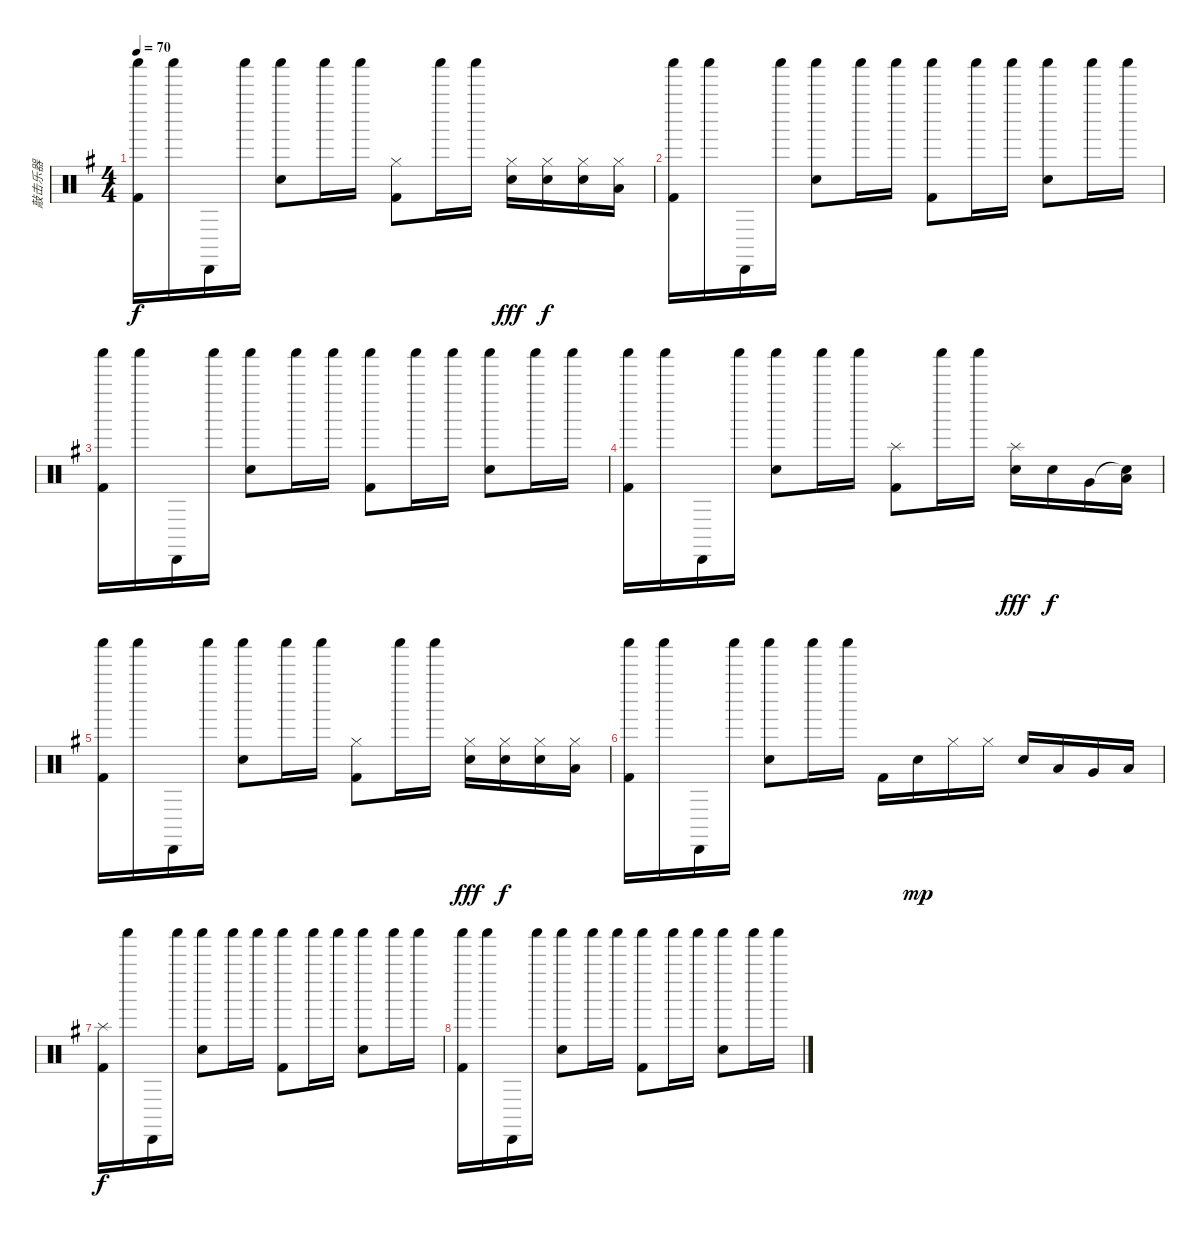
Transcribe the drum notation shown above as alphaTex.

\track ("敲击乐器" "敲击乐器") {instrument percussion}
\staff {score}
\articulation defaults
\ts (4 4)
\tempo 70
\clef neutral
\ks g
("Shaker (hit)" "Kick (hit) 2").16{dy f} "Shaker (hit)".16 "Cabasa (hit)".16 "Shaker (hit)".16 ("Shaker (hit)" "Snare (hit) 2").8 "Shaker (hit)".16 "Shaker (hit)".16 ("Hi-Hat (closed)" "Kick (hit) 2").8 "Shaker (hit)".16 "Shaker (hit)".16 ("Hi-Hat (closed)" "Snare (hit) 2").16{dy fff} ("Hi-Hat (closed)" "Electric Snare (hit)").16{dy f} ("Hi-Hat (closed)" "Electric Snare (hit)").16 ("Hi-Hat (closed)" "Low Tom (hit)").16 |
("Shaker (hit)" "Kick (hit) 2").16 "Shaker (hit)".16 "Cabasa (hit)".16 "Shaker (hit)".16 ("Shaker (hit)" "Snare (hit) 2").8 "Shaker (hit)".16 "Shaker (hit)".16 ("Shaker (hit)" "Kick (hit) 2").8 "Shaker (hit)".16 "Shaker (hit)".16 ("Shaker (hit)" "Snare (hit) 2").8 "Shaker (hit)".16 "Shaker (hit)".16 |
("Shaker (hit)" "Kick (hit) 2").16 "Shaker (hit)".16 "Cabasa (hit)".16 "Shaker (hit)".16 ("Shaker (hit)" "Snare (hit) 2").8 "Shaker (hit)".16 "Shaker (hit)".16 ("Shaker (hit)" "Kick (hit) 2").8 "Shaker (hit)".16 "Shaker (hit)".16 ("Shaker (hit)" "Snare (hit) 2").8 "Shaker (hit)".16 "Shaker (hit)".16 |
("Shaker (hit)" "Kick (hit) 2").16 "Shaker (hit)".16 "Cabasa (hit)".16 "Shaker (hit)".16 ("Shaker (hit)" "Snare (hit) 2").8 "Shaker (hit)".16 "Shaker (hit)".16 ("Splash (hit)" "Kick (hit) 2").8 "Shaker (hit)".16 "Shaker (hit)".16 ("Splash (hit)" "Snare (hit) 2").16{dy fff} "Electric Snare (hit)".16{dy f} "Very Low Tom (hit)".16 ("Snare (hit)"{t} "Low Tom (hit)").16 |
("Shaker (hit)" "Kick (hit) 2").16 "Shaker (hit)".16 "Cabasa (hit)".16 "Shaker (hit)".16 ("Shaker (hit)" "Snare (hit) 2").8 "Shaker (hit)".16 "Shaker (hit)".16 ("Hi-Hat (closed)" "Kick (hit) 2").8 "Shaker (hit)".16 "Shaker (hit)".16 ("Hi-Hat (closed)" "Snare (hit) 2").16{dy fff} ("Hi-Hat (closed)" "Electric Snare (hit)").16{dy f} ("Hi-Hat (closed)" "Electric Snare (hit)").16 ("Hi-Hat (closed)" "Low Tom (hit)").16 |
("Shaker (hit)" "Kick (hit) 2").16 "Shaker (hit)".16 "Cabasa (hit)".16 "Shaker (hit)".16 ("Shaker (hit)" "Snare (hit) 2").8 "Shaker (hit)".16 "Shaker (hit)".16 "Kick (hit) 2".16 "Snare (hit) 2".16{dy mp} "Hi-Hat (closed)".16 "Hi-Hat (closed)".16 "Snare (hit) 2".16 "Low Tom (hit)".16 "Very Low Tom (hit)".16 "Low Floor Tom (hit)".16 |
("Splash (hit)" "Kick (hit) 2").16{dy f} "Shaker (hit)".16 "Cabasa (hit)".16 "Shaker (hit)".16 ("Shaker (hit)" "Snare (hit) 2").8 "Shaker (hit)".16 "Shaker (hit)".16 ("Shaker (hit)" "Kick (hit) 2").8 "Shaker (hit)".16 "Shaker (hit)".16 ("Shaker (hit)" "Snare (hit) 2").8 "Shaker (hit)".16 "Shaker (hit)".16 |
("Shaker (hit)" "Kick (hit) 2").16 "Shaker (hit)".16 "Cabasa (hit)".16 "Shaker (hit)".16 ("Shaker (hit)" "Snare (hit) 2").8 "Shaker (hit)".16 "Shaker (hit)".16 ("Shaker (hit)" "Kick (hit) 2").8 "Shaker (hit)".16 "Shaker (hit)".16 ("Shaker (hit)" "Snare (hit) 2").8 "Shaker (hit)".16 "Shaker (hit)".16
